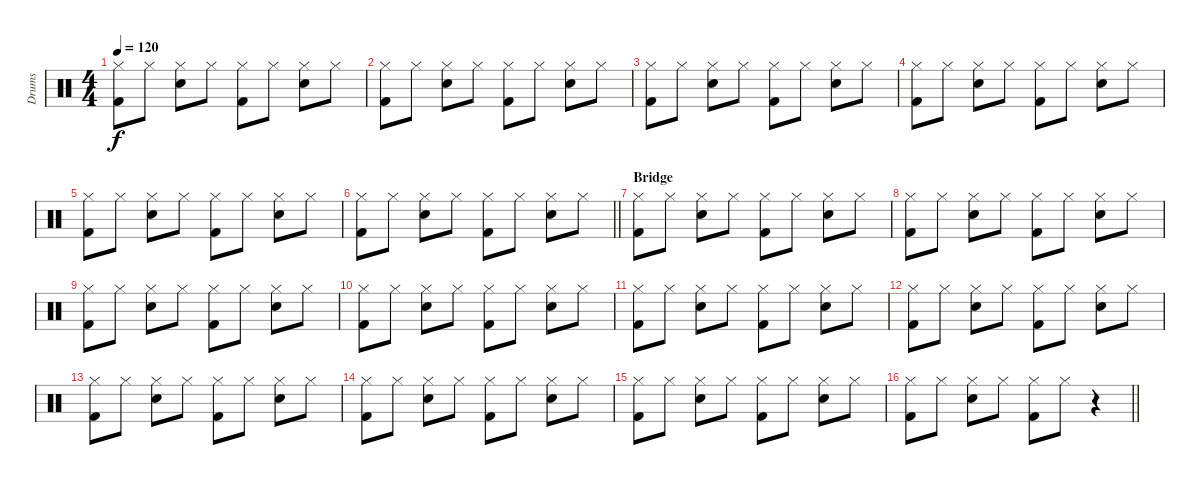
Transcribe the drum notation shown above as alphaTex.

\track ("Drums" "Drums") {instrument percussion}
\staff {score}
\articulation defaults
\ts (4 4)
\tempo 120
\clef neutral
\ks c
("Hi-Hat (closed)" "Kick (hit) 2").8{dy f} "Hi-Hat (closed)".8 ("Hi-Hat (closed)" "Snare (hit) 2").8 "Hi-Hat (closed)".8 ("Hi-Hat (closed)" "Kick (hit) 2").8 "Hi-Hat (closed)".8 ("Hi-Hat (closed)" "Snare (hit) 2").8 "Hi-Hat (closed)".8 |
("Hi-Hat (closed)" "Kick (hit) 2").8 "Hi-Hat (closed)".8 ("Hi-Hat (closed)" "Snare (hit) 2").8 "Hi-Hat (closed)".8 ("Hi-Hat (closed)" "Kick (hit) 2").8 "Hi-Hat (closed)".8 ("Hi-Hat (closed)" "Snare (hit) 2").8 "Hi-Hat (closed)".8 |
("Hi-Hat (closed)" "Kick (hit) 2").8 "Hi-Hat (closed)".8 ("Hi-Hat (closed)" "Snare (hit) 2").8 "Hi-Hat (closed)".8 ("Hi-Hat (closed)" "Kick (hit) 2").8 "Hi-Hat (closed)".8 ("Hi-Hat (closed)" "Snare (hit) 2").8 "Hi-Hat (closed)".8 |
("Hi-Hat (closed)" "Kick (hit) 2").8 "Hi-Hat (closed)".8 ("Hi-Hat (closed)" "Snare (hit) 2").8 "Hi-Hat (closed)".8 ("Hi-Hat (closed)" "Kick (hit) 2").8 "Hi-Hat (closed)".8 ("Hi-Hat (closed)" "Snare (hit) 2").8 "Hi-Hat (closed)".8 |
("Hi-Hat (closed)" "Kick (hit) 2").8 "Hi-Hat (closed)".8 ("Hi-Hat (closed)" "Snare (hit) 2").8 "Hi-Hat (closed)".8 ("Hi-Hat (closed)" "Kick (hit) 2").8 "Hi-Hat (closed)".8 ("Hi-Hat (closed)" "Snare (hit) 2").8 "Hi-Hat (closed)".8 |
\barLineRight lightlight
("Hi-Hat (closed)" "Kick (hit) 2").8 "Hi-Hat (closed)".8 ("Hi-Hat (closed)" "Snare (hit) 2").8 "Hi-Hat (closed)".8 ("Hi-Hat (closed)" "Kick (hit) 2").8 "Hi-Hat (closed)".8 ("Hi-Hat (closed)" "Snare (hit) 2").8 "Hi-Hat (closed)".8 |
\section ("" "Bridge")
("Hi-Hat (closed)" "Kick (hit) 2").8 "Hi-Hat (closed)".8 ("Hi-Hat (closed)" "Snare (hit) 2").8 "Hi-Hat (closed)".8 ("Hi-Hat (closed)" "Kick (hit) 2").8 "Hi-Hat (closed)".8 ("Hi-Hat (closed)" "Snare (hit) 2").8 "Hi-Hat (closed)".8 |
("Hi-Hat (closed)" "Kick (hit) 2").8 "Hi-Hat (closed)".8 ("Hi-Hat (closed)" "Snare (hit) 2").8 "Hi-Hat (closed)".8 ("Hi-Hat (closed)" "Kick (hit) 2").8 "Hi-Hat (closed)".8 ("Hi-Hat (closed)" "Snare (hit) 2").8 "Hi-Hat (closed)".8 |
("Hi-Hat (closed)" "Kick (hit) 2").8 "Hi-Hat (closed)".8 ("Hi-Hat (closed)" "Snare (hit) 2").8 "Hi-Hat (closed)".8 ("Hi-Hat (closed)" "Kick (hit) 2").8 "Hi-Hat (closed)".8 ("Hi-Hat (closed)" "Snare (hit) 2").8 "Hi-Hat (closed)".8 |
("Hi-Hat (closed)" "Kick (hit) 2").8 "Hi-Hat (closed)".8 ("Hi-Hat (closed)" "Snare (hit) 2").8 "Hi-Hat (closed)".8 ("Hi-Hat (closed)" "Kick (hit) 2").8 "Hi-Hat (closed)".8 ("Hi-Hat (closed)" "Snare (hit) 2").8 "Hi-Hat (closed)".8 |
("Hi-Hat (closed)" "Kick (hit) 2").8 "Hi-Hat (closed)".8 ("Hi-Hat (closed)" "Snare (hit) 2").8 "Hi-Hat (closed)".8 ("Hi-Hat (closed)" "Kick (hit) 2").8 "Hi-Hat (closed)".8 ("Hi-Hat (closed)" "Snare (hit) 2").8 "Hi-Hat (closed)".8 |
("Hi-Hat (closed)" "Kick (hit) 2").8 "Hi-Hat (closed)".8 ("Hi-Hat (closed)" "Snare (hit) 2").8 "Hi-Hat (closed)".8 ("Hi-Hat (closed)" "Kick (hit) 2").8 "Hi-Hat (closed)".8 ("Hi-Hat (closed)" "Snare (hit) 2").8 "Hi-Hat (closed)".8 |
("Hi-Hat (closed)" "Kick (hit) 2").8 "Hi-Hat (closed)".8 ("Hi-Hat (closed)" "Snare (hit) 2").8 "Hi-Hat (closed)".8 ("Hi-Hat (closed)" "Kick (hit) 2").8 "Hi-Hat (closed)".8 ("Hi-Hat (closed)" "Snare (hit) 2").8 "Hi-Hat (closed)".8 |
("Hi-Hat (closed)" "Kick (hit) 2").8 "Hi-Hat (closed)".8 ("Hi-Hat (closed)" "Snare (hit) 2").8 "Hi-Hat (closed)".8 ("Hi-Hat (closed)" "Kick (hit) 2").8 "Hi-Hat (closed)".8 ("Hi-Hat (closed)" "Snare (hit) 2").8 "Hi-Hat (closed)".8 |
("Hi-Hat (closed)" "Kick (hit) 2").8 "Hi-Hat (closed)".8 ("Hi-Hat (closed)" "Snare (hit) 2").8 "Hi-Hat (closed)".8 ("Hi-Hat (closed)" "Kick (hit) 2").8 "Hi-Hat (closed)".8 ("Hi-Hat (closed)" "Snare (hit) 2").8 "Hi-Hat (closed)".8 |
\barLineRight lightlight
("Hi-Hat (closed)" "Kick (hit) 2").8{volume 7} "Hi-Hat (closed)".8 ("Hi-Hat (closed)" "Snare (hit) 2").8 "Hi-Hat (closed)".8 ("Hi-Hat (closed)" "Kick (hit) 2").8 "Hi-Hat (closed)".8 r.4
